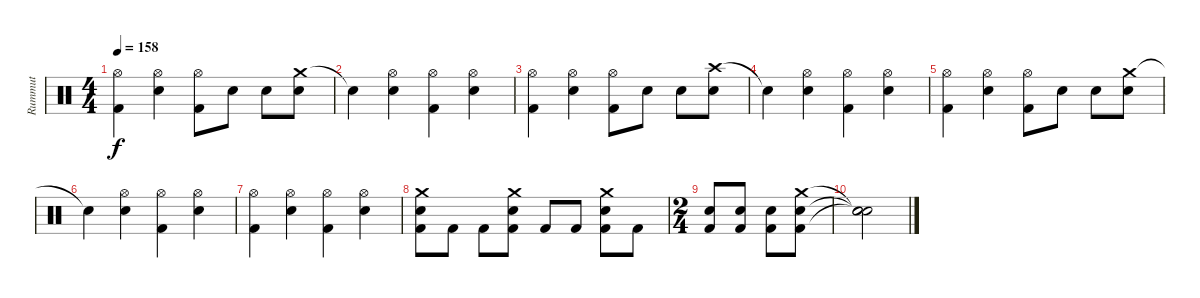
\track ("Rummut" "Rummut") {instrument percussion}
\staff {score}
\articulation defaults
\ts (4 4)
\tempo 158
\clef neutral
\ks c
("Hi-Hat (open)" "Kick (hit) 2").4{dy f} ("Hi-Hat (open)" "Electric Snare (hit)").4 ("Hi-Hat (open)" "Kick (hit) 2").8 "Electric Snare (hit)".8 "Electric Snare (hit)".8 ("Crash medium (hit)" "Electric Snare (hit)").8 |
"Snare (hit)"{t}.4 ("Hi-Hat (open)" "Electric Snare (hit)").4 ("Hi-Hat (open)" "Kick (hit) 2").4 ("Hi-Hat (open)" "Electric Snare (hit)").4 |
("Hi-Hat (open)" "Kick (hit) 2").4 ("Hi-Hat (open)" "Electric Snare (hit)").4 ("Hi-Hat (open)" "Kick (hit) 2").8 "Electric Snare (hit)".8 "Electric Snare (hit)".8 ("Crash high (hit)" "Electric Snare (hit)").8 |
"Snare (hit)"{t}.4 ("Hi-Hat (open)" "Electric Snare (hit)").4 ("Hi-Hat (open)" "Kick (hit) 2").4 ("Hi-Hat (open)" "Electric Snare (hit)").4 |
("Hi-Hat (open)" "Kick (hit) 2").4 ("Hi-Hat (open)" "Electric Snare (hit)").4 ("Hi-Hat (open)" "Kick (hit) 2").8 "Electric Snare (hit)".8 "Electric Snare (hit)".8 ("Crash medium (hit)" "Electric Snare (hit)").8 |
"Snare (hit)"{t}.4 ("Hi-Hat (open)" "Electric Snare (hit)").4 ("Hi-Hat (open)" "Kick (hit) 2").4 ("Hi-Hat (open)" "Electric Snare (hit)").4 |
("Hi-Hat (open)" "Kick (hit) 2").4 ("Hi-Hat (open)" "Electric Snare (hit)").4 ("Hi-Hat (open)" "Kick (hit) 2").4 ("Hi-Hat (open)" "Electric Snare (hit)").4 |
("Crash medium (hit)" "Electric Snare (hit)" "Kick (hit) 2").8 "Kick (hit) 2".8 "Kick (hit) 2".8 ("Crash medium (hit)" "Electric Snare (hit)" "Kick (hit) 2").8 "Kick (hit) 2".8 "Kick (hit) 2".8 ("Crash medium (hit)" "Electric Snare (hit)" "Kick (hit) 2").8 "Kick (hit) 2".8 |
\ts (2 4)
("Electric Snare (hit)" "Kick (hit) 2").8 ("Electric Snare (hit)" "Kick (hit) 2").8 ("Electric Snare (hit)" "Kick (hit) 2").8 ("Crash medium (hit)" "Electric Snare (hit)" "Kick (hit) 2").8 |
("Snare (hit)"{t} "Snare (hit)"{t} "Snare (hit)"{t}).2
